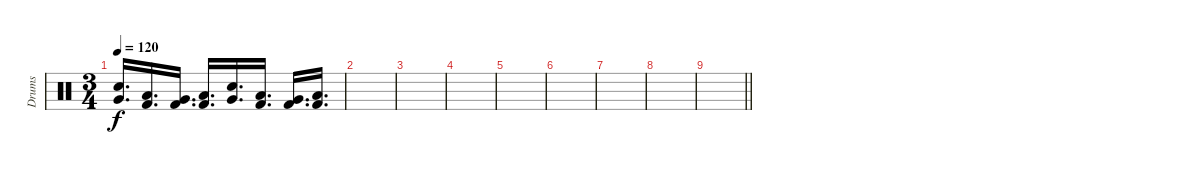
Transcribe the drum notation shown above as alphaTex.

\track ("Drums" "Drums") {instrument percussion}
\staff {score}
\articulation defaults
\ts (3 4)
\tempo 120
\clef neutral
\ks c
("Electric Snare (hit)" "Very Low Tom (hit)").16{d dy f} ("Low Floor Tom (hit)" "Kick (hit) 2").16{d} ("Very Low Tom (hit)" "Kick (hit) 2").16{d} ("Low Floor Tom (hit)" "Kick (hit) 2").16{d} ("Electric Snare (hit)" "Very Low Tom (hit)").16{d} ("Low Floor Tom (hit)" "Kick (hit) 2").16{d} ("Very Low Tom (hit)" "Kick (hit) 2").16{d} ("Low Floor Tom (hit)" "Kick (hit) 2").16{d} |
|
|
|
|
|
|
|
\barLineRight lightlight
